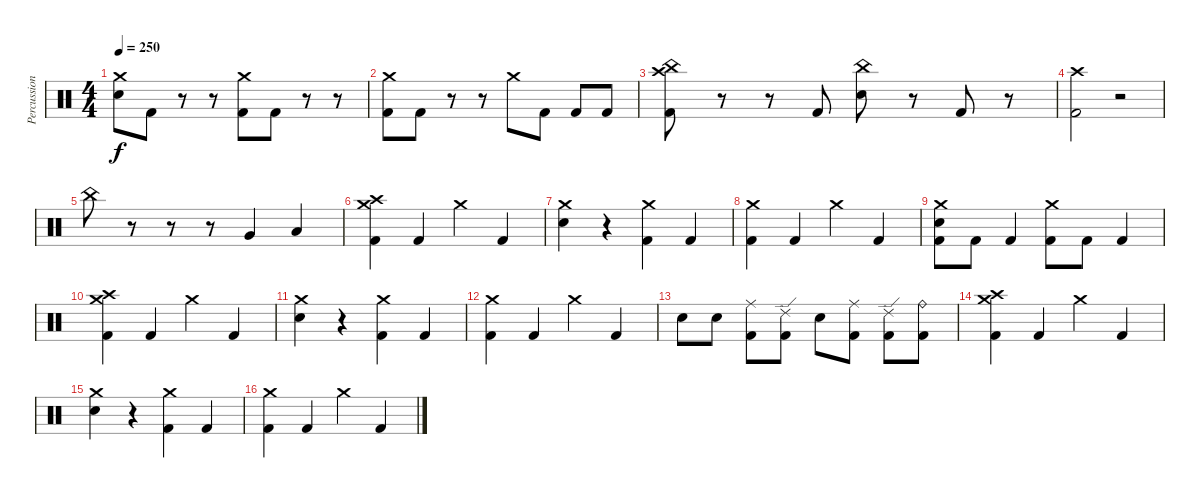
\track ("Percussion" "Percussion") {instrument percussion}
\staff {score}
\articulation defaults
\ts (4 4)
\tempo 250
\clef neutral
\ks c
("Crash medium (hit)" "Electric Snare (hit)").8{dy f} "Kick (hit) 2".8 r.8 r.8 ("Crash medium (hit)" "Kick (hit) 2").8 "Kick (hit) 2".8 r.8 r.8 |
("Crash medium (hit)" "Kick (hit) 2").8 "Kick (hit) 2".8 r.8 r.8 "Crash medium (hit)".8 "Kick (hit) 2".8 "Kick (hit) 2".8 "Kick (hit) 2".8 |
("Crash high (hit)" "China (hit)" "Kick (hit) 2").8 r.8 r.8 "Kick (hit) 2".8 ("China (hit)" "Electric Snare (hit)").8 r.8 "Kick (hit) 2".8 r.8 |
("Crash high (hit)" "Kick (hit) 2").2 r.2 |
"China (hit)".8 r.8 r.8 r.8 "Very Low Tom (hit)".4 "Low Floor Tom (hit)".4 |
("Crash high (hit)" "Crash medium (hit)" "Kick (hit) 2").4 "Kick (hit) 2".4 "Crash medium (hit)".4 "Kick (hit) 2".4 |
("Crash medium (hit)" "Electric Snare (hit)").4 r.4 ("Crash medium (hit)" "Kick (hit) 2").4 "Kick (hit) 2".4 |
("Crash medium (hit)" "Kick (hit) 2").4 "Kick (hit) 2".4 "Crash medium (hit)".4 "Kick (hit) 2".4 |
("Crash medium (hit)" "Electric Snare (hit)" "Kick (hit) 2").8 "Kick (hit) 2".8 "Kick (hit) 2".4 ("Crash medium (hit)" "Kick (hit) 2").8 "Kick (hit) 2".8 "Kick (hit) 2".4 |
("Crash high (hit)" "Crash medium (hit)" "Kick (hit) 2").4 "Kick (hit) 2".4 "Crash medium (hit)".4 "Kick (hit) 2".4 |
("Crash medium (hit)" "Electric Snare (hit)").4 r.4 ("Crash medium (hit)" "Kick (hit) 2").4 "Kick (hit) 2".4 |
("Crash medium (hit)" "Kick (hit) 2").4 "Kick (hit) 2".4 "Crash medium (hit)".4 "Kick (hit) 2".4 |
"Electric Snare (hit)".8 "Electric Snare (hit)".8 ("Ride (middle)" "Kick (hit) 2").8 ("Ride (edge) 2" "Kick (hit) 2").8 "Electric Snare (hit)".8 ("Ride (middle)" "Kick (hit) 2").8 ("Ride (edge) 2" "Kick (hit) 2").8 ("Ride (bell)" "Kick (hit) 2").8 |
("Crash high (hit)" "Crash medium (hit)" "Kick (hit) 2").4 "Kick (hit) 2".4 "Crash medium (hit)".4 "Kick (hit) 2".4 |
("Crash medium (hit)" "Electric Snare (hit)").4 r.4 ("Crash medium (hit)" "Kick (hit) 2").4 "Kick (hit) 2".4 |
("Crash medium (hit)" "Kick (hit) 2").4 "Kick (hit) 2".4 "Crash medium (hit)".4 "Kick (hit) 2".4
